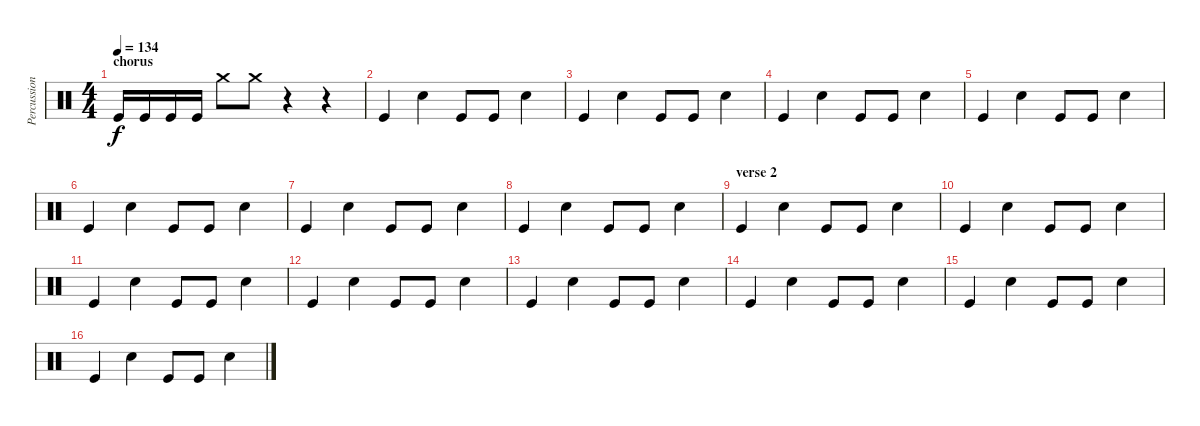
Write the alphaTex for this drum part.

\track ("Percussion" "Percussion") {instrument percussion}
\staff {score}
\articulation defaults
\ts (4 4)
\section ("" "chorus")
\tempo 134
\clef neutral
\ks c "Kick (hit)".16{dy f} "Kick (hit)".16 "Kick (hit)".16 "Kick (hit)".16 "Crash medium (hit)".8 "Crash medium (hit)".8
r.4 r.4 |
"Kick (hit)".4 "Snare (hit) 2".4 "Kick (hit)".8 "Kick (hit)".8 "Snare (hit) 2".4 |
"Kick (hit)".4 "Snare (hit) 2".4 "Kick (hit)".8 "Kick (hit)".8 "Snare (hit) 2".4 |
"Kick (hit)".4 "Snare (hit) 2".4 "Kick (hit)".8 "Kick (hit)".8 "Snare (hit) 2".4 |
"Kick (hit)".4 "Snare (hit) 2".4 "Kick (hit)".8 "Kick (hit)".8 "Snare (hit) 2".4 |
"Kick (hit)".4 "Snare (hit) 2".4 "Kick (hit)".8 "Kick (hit)".8 "Snare (hit) 2".4 |
"Kick (hit)".4 "Snare (hit) 2".4 "Kick (hit)".8 "Kick (hit)".8 "Snare (hit) 2".4 |
"Kick (hit)".4 "Snare (hit) 2".4 "Kick (hit)".8 "Kick (hit)".8 "Snare (hit) 2".4 |
\section ("" "verse 2")
"Kick (hit)".4 "Snare (hit) 2".4 "Kick (hit)".8 "Kick (hit)".8 "Snare (hit) 2".4 |
"Kick (hit)".4 "Snare (hit) 2".4 "Kick (hit)".8 "Kick (hit)".8 "Snare (hit) 2".4 |
"Kick (hit)".4 "Snare (hit) 2".4 "Kick (hit)".8 "Kick (hit)".8 "Snare (hit) 2".4 |
"Kick (hit)".4 "Snare (hit) 2".4 "Kick (hit)".8 "Kick (hit)".8 "Snare (hit) 2".4 |
"Kick (hit)".4 "Snare (hit) 2".4 "Kick (hit)".8 "Kick (hit)".8 "Snare (hit) 2".4 |
"Kick (hit)".4 "Snare (hit) 2".4 "Kick (hit)".8 "Kick (hit)".8 "Snare (hit) 2".4 |
"Kick (hit)".4 "Snare (hit) 2".4 "Kick (hit)".8 "Kick (hit)".8 "Snare (hit) 2".4 |
"Kick (hit)".4 "Snare (hit) 2".4 "Kick (hit)".8 "Kick (hit)".8 "Snare (hit) 2".4
